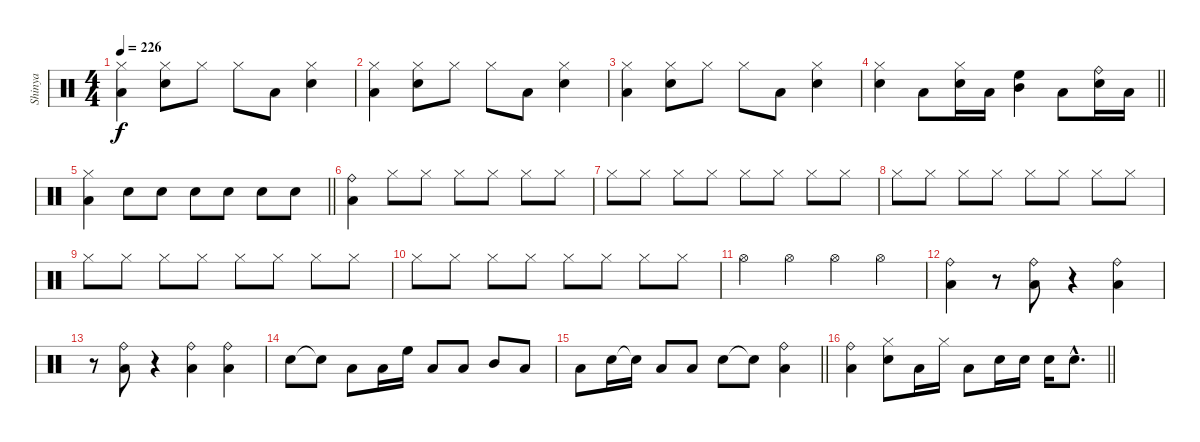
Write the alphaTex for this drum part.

\track ("Shinya" "Shinya") {instrument percussion}
\staff {score}
\articulation defaults
\ts (4 4)
\tempo 226
\clef neutral
\ks c
("Hi-Hat (closed)" "Low Floor Tom (hit)").4{dy f} ("Hi-Hat (closed)" "Snare (hit) 2").8 "Hi-Hat (closed)".8 "Hi-Hat (closed)".8 "Low Floor Tom (hit)".8 ("Hi-Hat (closed)" "Snare (hit) 2").4 |
("Hi-Hat (closed)" "Low Floor Tom (hit)").4 ("Hi-Hat (closed)" "Snare (hit) 2").8 "Hi-Hat (closed)".8 "Hi-Hat (closed)".8 "Low Floor Tom (hit)".8 ("Hi-Hat (closed)" "Snare (hit) 2").4 |
("Hi-Hat (closed)" "Low Floor Tom (hit)").4 ("Hi-Hat (closed)" "Snare (hit) 2").8 "Hi-Hat (closed)".8 "Hi-Hat (closed)".8 "Low Floor Tom (hit)".8 ("Hi-Hat (closed)" "Snare (hit) 2").4 |
\barLineRight lightlight
("Hi-Hat (closed)" "Snare (hit) 2").4 "Low Floor Tom (hit)".8 ("Hi-Hat (closed)" "Snare (hit) 2").16 "Low Floor Tom (hit)".16 ("High Floor Tom (hit)" "Mid Tom (hit)").4 "Low Floor Tom (hit)".8 ("Ride (bell)" "Snare (hit) 2").16 "Low Floor Tom (hit)".16 |
\barLineRight lightlight
("Hi-Hat (closed)" "Low Floor Tom (hit)").4 "Snare (hit) 2".8 "Snare (hit) 2".8 "Snare (hit) 2".8 "Snare (hit) 2".8 "Snare (hit) 2".8 "Snare (hit) 2".8 |
("Ride (bell)" "Low Floor Tom (hit)").4 "Hi-Hat (closed)".8 "Hi-Hat (closed)".8 "Hi-Hat (closed)".8 "Hi-Hat (closed)".8 "Hi-Hat (closed)".8 "Hi-Hat (closed)".8 |
"Hi-Hat (closed)".8 "Hi-Hat (closed)".8 "Hi-Hat (closed)".8 "Hi-Hat (closed)".8 "Hi-Hat (closed)".8 "Hi-Hat (closed)".8 "Hi-Hat (closed)".8 "Hi-Hat (closed)".8 |
"Hi-Hat (closed)".8 "Hi-Hat (closed)".8 "Hi-Hat (closed)".8 "Hi-Hat (closed)".8 "Hi-Hat (closed)".8 "Hi-Hat (closed)".8 "Hi-Hat (closed)".8 "Hi-Hat (closed)".8 |
"Hi-Hat (closed)".8 "Hi-Hat (closed)".8 "Hi-Hat (closed)".8 "Hi-Hat (closed)".8 "Hi-Hat (closed)".8 "Hi-Hat (closed)".8 "Hi-Hat (closed)".8 "Hi-Hat (closed)".8 |
"Hi-Hat (closed)".8 "Hi-Hat (closed)".8 "Hi-Hat (closed)".8 "Hi-Hat (closed)".8 "Hi-Hat (closed)".8 "Hi-Hat (closed)".8 "Hi-Hat (closed)".8 "Hi-Hat (closed)".8 |
"Hi-Hat (open)".4 "Hi-Hat (open)".4 "Hi-Hat (open)".4 "Hi-Hat (open)".4 |
("Ride (bell)" "Low Floor Tom (hit)").4 r.8 ("Low Floor Tom (hit)" "Ride (bell)").8 r.4 ("Ride (bell)" "Low Floor Tom (hit)").4 |
r.8 ("Ride (bell)" "Low Floor Tom (hit)").8 r.4 ("Ride (bell)" "Low Floor Tom (hit)").4 ("Ride (bell)" "Low Floor Tom (hit)").4 |
"Snare (hit) 2".8 "Snare (hit) 2"{t}.8 "Low Floor Tom (hit)".8 "Low Floor Tom (hit)".16 "High Floor Tom (hit)".16 "Low Floor Tom (hit)".8 "Low Floor Tom (hit)".8 "Mid Tom (hit)".8 "Low Floor Tom (hit)".8 |
\barLineRight lightlight "Low Floor Tom (hit)".8 "Snare (hit) 2".16 "Snare (hit)"{t}.16 "Low Floor Tom (hit)".8 "Low Floor Tom (hit)".8 "Snare (hit) 2".8 "Snare (hit)"{t}.8
("Ride (bell)" "Low Floor Tom (hit)").4 |
\barLineRight lightlight
("Ride (bell)" "Low Floor Tom (hit)").4 ("Hi-Hat (closed)" "Snare (hit) 2").8 "Low Floor Tom (hit)".16 "Hi-Hat (closed)".16 "Low Floor Tom (hit)".8 "Snare (hit) 2".16 "Snare (hit) 2".16 "Snare (hit) 2".16 "Snare (hit) 2"{hac}.8{d}
